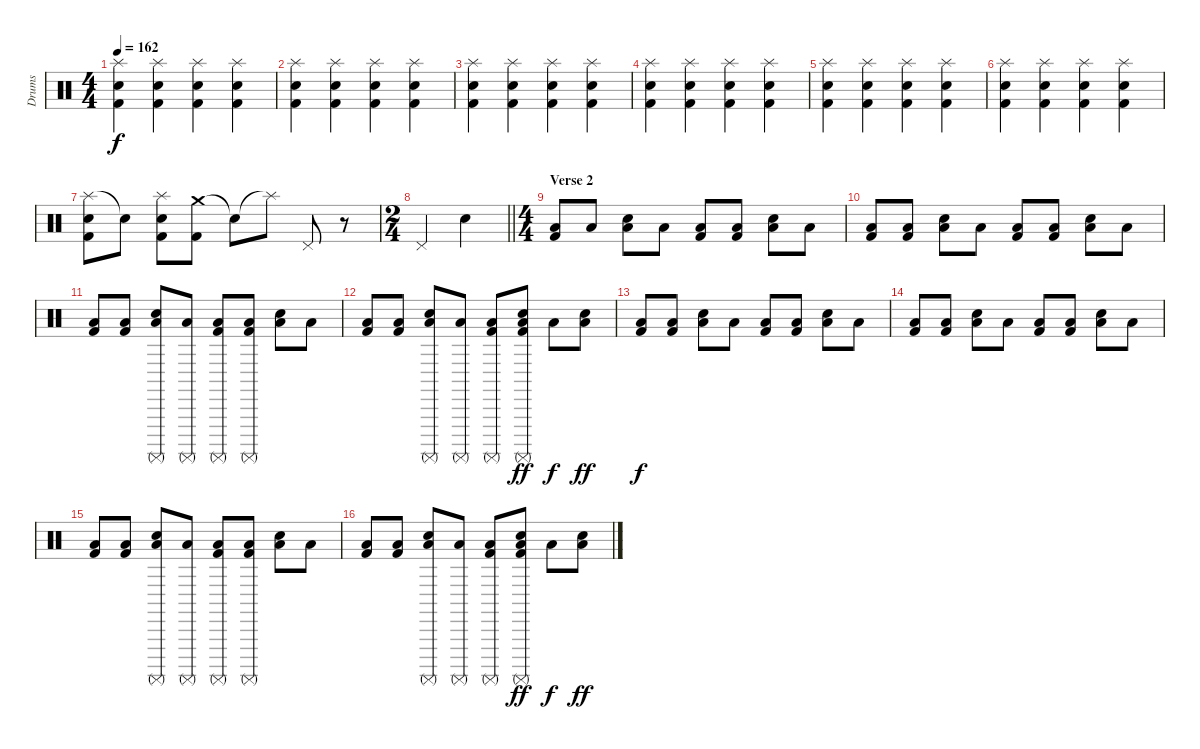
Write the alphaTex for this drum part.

\track ("Drums" "Drums") {instrument percussion}
\staff {score}
\articulation defaults
\ts (4 4)
\tempo 162
\clef neutral
\ks c
("Splash (hit)" "Electric Snare (hit)" "Kick (hit) 2").4{dy f} ("Splash (hit)" "Electric Snare (hit)" "Kick (hit) 2").4 ("Splash (hit)" "Electric Snare (hit)" "Kick (hit) 2").4 ("Splash (hit)" "Electric Snare (hit)" "Kick (hit) 2").4 |
("Splash (hit)" "Electric Snare (hit)" "Kick (hit) 2").4 ("Splash (hit)" "Electric Snare (hit)" "Kick (hit) 2").4 ("Splash (hit)" "Electric Snare (hit)" "Kick (hit) 2").4 ("Splash (hit)" "Electric Snare (hit)" "Kick (hit) 2").4 |
("Splash (hit)" "Electric Snare (hit)" "Kick (hit) 2").4 ("Splash (hit)" "Electric Snare (hit)" "Kick (hit) 2").4 ("Splash (hit)" "Electric Snare (hit)" "Kick (hit) 2").4 ("Splash (hit)" "Electric Snare (hit)" "Kick (hit) 2").4 |
("Splash (hit)" "Electric Snare (hit)" "Kick (hit) 2").4 ("Splash (hit)" "Electric Snare (hit)" "Kick (hit) 2").4 ("Splash (hit)" "Electric Snare (hit)" "Kick (hit) 2").4 ("Splash (hit)" "Electric Snare (hit)" "Kick (hit) 2").4 |
("Splash (hit)" "Electric Snare (hit)" "Kick (hit) 2").4 ("Splash (hit)" "Electric Snare (hit)" "Kick (hit) 2").4 ("Splash (hit)" "Electric Snare (hit)" "Kick (hit) 2").4 ("Splash (hit)" "Electric Snare (hit)" "Kick (hit) 2").4 |
("Splash (hit)" "Electric Snare (hit)" "Kick (hit) 2").4 ("Splash (hit)" "Electric Snare (hit)" "Kick (hit) 2").4 ("Splash (hit)" "Electric Snare (hit)" "Kick (hit) 2").4 ("Splash (hit)" "Electric Snare (hit)" "Kick (hit) 2").4 |
("Splash (hit)" "Electric Snare (hit)" "Kick (hit) 2").8 "Snare (hit)"{t}.8 ("Splash (hit)" "Electric Snare (hit)" "Kick (hit) 2").8 ("Crash medium (hit)" "Kick (hit) 2").8 "Snare (hit)"{t}.8 "Splash (hit)"{t}.8 "Pedal Hi-Hat (hit)".8 r.8 |
\ts (2 4)
\barLineRight lightlight "Pedal Hi-Hat (hit)".4 "Electric Snare (hit)".4
|
\ts (4 4)
\section ("" "Verse 2")
("Low Floor Tom (hit)" "Kick (hit) 2").8 "Low Floor Tom (hit)".8 ("Electric Snare (hit)" "Low Floor Tom (hit)").8 "Low Floor Tom (hit)".8 ("Low Floor Tom (hit)" "Kick (hit) 2").8 ("Low Floor Tom (hit)" "Kick (hit) 2").8 ("Electric Snare (hit)" "Low Floor Tom (hit)").8 "Low Floor Tom (hit)".8 |
("Low Floor Tom (hit)" "Kick (hit) 2").8 ("Low Floor Tom (hit)" "Kick (hit) 2").8 ("Electric Snare (hit)" "Low Floor Tom (hit)").8 "Low Floor Tom (hit)".8 ("Low Floor Tom (hit)" "Kick (hit) 2").8 ("Low Floor Tom (hit)" "Kick (hit) 2").8 ("Electric Snare (hit)" "Low Floor Tom (hit)").8 "Low Floor Tom (hit)".8 |
("Low Floor Tom (hit)" "Kick (hit) 2").8 ("Low Floor Tom (hit)" "Kick (hit) 2").8 ("Surdo (mute)" "Electric Snare (hit)" "Low Floor Tom (hit)").8 ("Surdo (mute)" "Low Floor Tom (hit)").8 ("Surdo (mute)" "Low Floor Tom (hit)" "Kick (hit) 2").8 ("Surdo (mute)" "Low Floor Tom (hit)" "Kick (hit) 2").8 ("Electric Snare (hit)" "Low Floor Tom (hit)").8 "Low Floor Tom (hit)".8 |
("Low Floor Tom (hit)" "Kick (hit) 2").8 ("Low Floor Tom (hit)" "Kick (hit) 2").8 ("Surdo (mute)" "Electric Snare (hit)" "Low Floor Tom (hit)").8 ("Surdo (mute)" "Low Floor Tom (hit)").8 ("Surdo (mute)" "Low Floor Tom (hit)" "Kick (hit) 2").8 ("Surdo (mute)" "Electric Snare (hit)" "Low Floor Tom (hit)" "Kick (hit) 2").8{dy ff} "Low Floor Tom (hit)".8{dy f} ("Electric Snare (hit)" "Low Floor Tom (hit)").8{dy ff} |
("Low Floor Tom (hit)" "Kick (hit) 2").8{dy f} ("Low Floor Tom (hit)" "Kick (hit) 2").8 ("Electric Snare (hit)" "Low Floor Tom (hit)").8 "Low Floor Tom (hit)".8 ("Low Floor Tom (hit)" "Kick (hit) 2").8 ("Low Floor Tom (hit)" "Kick (hit) 2").8 ("Electric Snare (hit)" "Low Floor Tom (hit)").8 "Low Floor Tom (hit)".8 |
("Low Floor Tom (hit)" "Kick (hit) 2").8 ("Low Floor Tom (hit)" "Kick (hit) 2").8 ("Electric Snare (hit)" "Low Floor Tom (hit)").8 "Low Floor Tom (hit)".8 ("Low Floor Tom (hit)" "Kick (hit) 2").8 ("Low Floor Tom (hit)" "Kick (hit) 2").8 ("Electric Snare (hit)" "Low Floor Tom (hit)").8 "Low Floor Tom (hit)".8 |
("Low Floor Tom (hit)" "Kick (hit) 2").8 ("Low Floor Tom (hit)" "Kick (hit) 2").8 ("Surdo (mute)" "Electric Snare (hit)" "Low Floor Tom (hit)").8 ("Surdo (mute)" "Low Floor Tom (hit)").8 ("Surdo (mute)" "Low Floor Tom (hit)" "Kick (hit) 2").8 ("Surdo (mute)" "Low Floor Tom (hit)" "Kick (hit) 2").8 ("Electric Snare (hit)" "Low Floor Tom (hit)").8 "Low Floor Tom (hit)".8 |
("Low Floor Tom (hit)" "Kick (hit) 2").8 ("Low Floor Tom (hit)" "Kick (hit) 2").8 ("Surdo (mute)" "Electric Snare (hit)" "Low Floor Tom (hit)").8 ("Surdo (mute)" "Low Floor Tom (hit)").8 ("Surdo (mute)" "Low Floor Tom (hit)" "Kick (hit) 2").8 ("Surdo (mute)" "Electric Snare (hit)" "Low Floor Tom (hit)" "Kick (hit) 2").8{dy ff} "Low Floor Tom (hit)".8{dy f} ("Electric Snare (hit)" "Low Floor Tom (hit)").8{dy ff}
